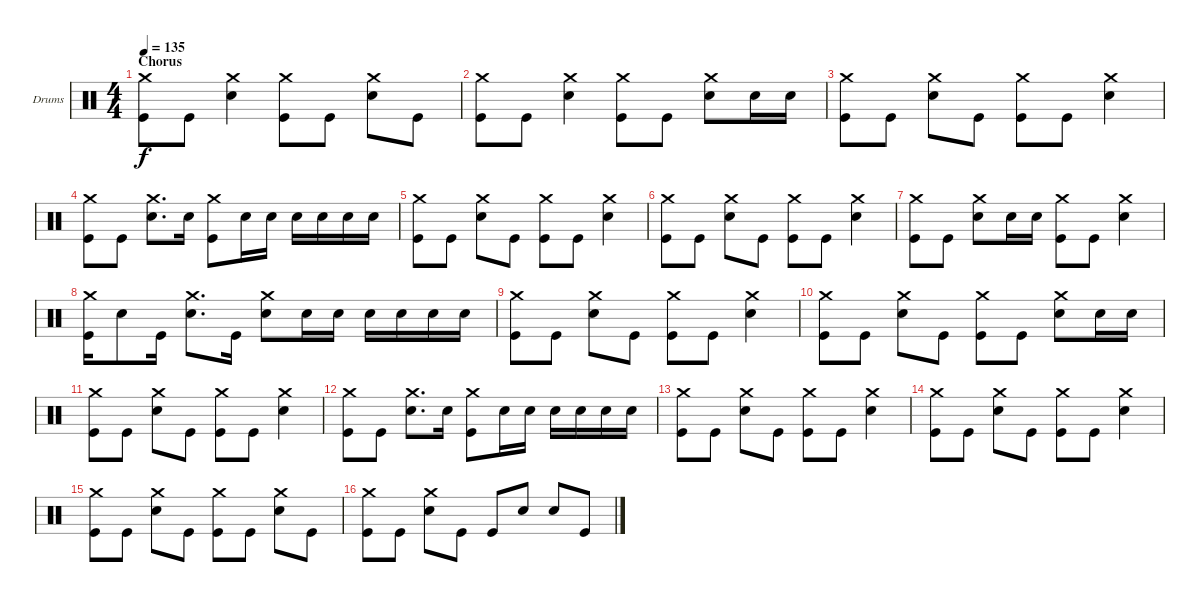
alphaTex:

\bracketExtendMode groupsimilarinstruments
\firstSystemTrackNameOrientation horizontal
\otherSystemsTrackNameOrientation horizontal
\track ("Drumkit" "Drums") {instrument percussion}
\staff {score}
\articulation defaults
\ts (4 4)
\section ("" "Chorus")
\tempo 135
\clef neutral
\ks c
("Crash medium (hit)" "Kick (hit)").8{dy f} "Kick (hit)".8 ("Snare (hit) 2" "Crash medium (hit)").4 ("Crash medium (hit)" "Kick (hit)").8 "Kick (hit)".8 ("Snare (hit) 2" "Crash medium (hit)").8 "Kick (hit)".8 |
("Crash medium (hit)" "Kick (hit)").8 "Kick (hit)".8 ("Snare (hit) 2" "Crash medium (hit)").4 ("Crash medium (hit)" "Kick (hit)").8 "Kick (hit)".8 ("Snare (hit) 2" "Crash medium (hit)").8 "Snare (hit) 2".16 "Snare (hit) 2".16 |
("Crash medium (hit)" "Kick (hit)").8 "Kick (hit)".8 ("Snare (hit) 2" "Crash medium (hit)").8 "Kick (hit)".8 ("Crash medium (hit)" "Kick (hit)").8 "Kick (hit)".8 ("Snare (hit) 2" "Crash medium (hit)").4 |
("Crash medium (hit)" "Kick (hit)").8 "Kick (hit)".8 ("Snare (hit) 2" "Crash medium (hit)").8{d} "Snare (hit) 2".16 ("Crash medium (hit)" "Kick (hit)").8 "Snare (hit) 2".16 "Snare (hit) 2".16 "Snare (hit) 2".16 "Snare (hit) 2".16 "Snare (hit) 2".16 "Snare (hit) 2".16 |
("Crash medium (hit)" "Kick (hit)").8 "Kick (hit)".8 ("Snare (hit) 2" "Crash medium (hit)").8 "Kick (hit)".8 ("Crash medium (hit)" "Kick (hit)").8 "Kick (hit)".8 ("Snare (hit) 2" "Crash medium (hit)").4 |
("Crash medium (hit)" "Kick (hit)").8 "Kick (hit)".8 ("Snare (hit) 2" "Crash medium (hit)").8 "Kick (hit)".8 ("Crash medium (hit)" "Kick (hit)").8 "Kick (hit)".8 ("Snare (hit) 2" "Crash medium (hit)").4 |
("Crash medium (hit)" "Kick (hit)").8 "Kick (hit)".8 ("Snare (hit) 2" "Crash medium (hit)").8 "Snare (hit) 2".16 "Snare (hit) 2".16 ("Crash medium (hit)" "Kick (hit)").8 "Kick (hit)".8 ("Snare (hit) 2" "Crash medium (hit)").4 |
("Crash medium (hit)" "Kick (hit)").16 "Snare (hit) 2".8 "Kick (hit)".16 ("Crash medium (hit)" "Snare (hit) 2").8{d} "Kick (hit)".16 ("Crash medium (hit)" "Snare (hit) 2").8 "Snare (hit) 2".16 "Snare (hit) 2".16 "Snare (hit) 2".16 "Snare (hit) 2".16 "Snare (hit) 2".16 "Snare (hit) 2".16 |
("Crash medium (hit)" "Kick (hit)").8 "Kick (hit)".8 ("Snare (hit) 2" "Crash medium (hit)").8 "Kick (hit)".8 ("Crash medium (hit)" "Kick (hit)").8 "Kick (hit)".8 ("Snare (hit) 2" "Crash medium (hit)").4 |
("Crash medium (hit)" "Kick (hit)").8 "Kick (hit)".8 ("Snare (hit) 2" "Crash medium (hit)").8 "Kick (hit)".8 ("Crash medium (hit)" "Kick (hit)").8 "Kick (hit)".8 ("Snare (hit) 2" "Crash medium (hit)").8 "Snare (hit) 2".16 "Snare (hit) 2".16 |
("Crash medium (hit)" "Kick (hit)").8 "Kick (hit)".8 ("Snare (hit) 2" "Crash medium (hit)").8 "Kick (hit)".8 ("Crash medium (hit)" "Kick (hit)").8 "Kick (hit)".8 ("Snare (hit) 2" "Crash medium (hit)").4 |
("Crash medium (hit)" "Kick (hit)").8 "Kick (hit)".8 ("Snare (hit) 2" "Crash medium (hit)").8{d} "Snare (hit) 2".16 ("Crash medium (hit)" "Kick (hit)").8 "Snare (hit) 2".16 "Snare (hit) 2".16 "Snare (hit) 2".16 "Snare (hit) 2".16 "Snare (hit) 2".16 "Snare (hit) 2".16 |
("Crash medium (hit)" "Kick (hit)").8 "Kick (hit)".8 ("Snare (hit) 2" "Crash medium (hit)").8 "Kick (hit)".8 ("Crash medium (hit)" "Kick (hit)").8 "Kick (hit)".8 ("Snare (hit) 2" "Crash medium (hit)").4 |
("Crash medium (hit)" "Kick (hit)").8 "Kick (hit)".8 ("Snare (hit) 2" "Crash medium (hit)").8 "Kick (hit)".8 ("Crash medium (hit)" "Kick (hit)").8 "Kick (hit)".8 ("Snare (hit) 2" "Crash medium (hit)").4 |
("Crash medium (hit)" "Kick (hit)").8 "Kick (hit)".8 ("Snare (hit) 2" "Crash medium (hit)").8 "Kick (hit)".8 ("Crash medium (hit)" "Kick (hit)").8 "Kick (hit)".8 ("Snare (hit) 2" "Crash medium (hit)").8 "Kick (hit)".8 |
("Crash medium (hit)" "Kick (hit)").8 "Kick (hit)".8 ("Snare (hit) 2" "Crash medium (hit)").8 "Kick (hit)".8 "Kick (hit)".8 "Snare (hit) 2".8 "Snare (hit) 2".8 "Kick (hit)".8
